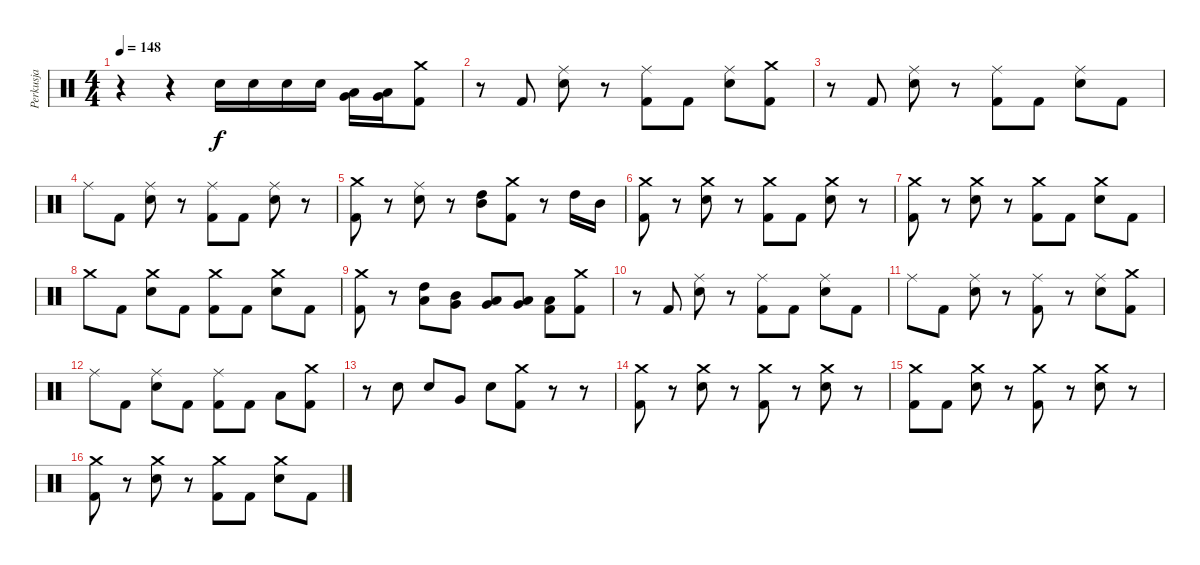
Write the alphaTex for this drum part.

\track ("Perkusja" "Perkusja") {instrument percussion}
\staff {score}
\articulation defaults
\ts (4 4)
\tempo 148
\clef neutral
\ks c
r.4{dy f} r.4 "Electric Snare (hit)".16 "Electric Snare (hit)".16 "Electric Snare (hit)".16 "Electric Snare (hit)".16 ("Very Low Tom (hit)" "Low Floor Tom (hit)").16 ("Very Low Tom (hit)" "Low Floor Tom (hit)").16 ("Crash medium (hit)" "Kick (hit) 2").8 |
r.8 "Kick (hit) 2".8 ("Ride (middle)" "Electric Snare (hit)").8 r.8 ("Ride (middle)" "Kick (hit) 2").8 "Kick (hit) 2".8 ("Ride (middle)" "Electric Snare (hit)").8 ("Crash medium (hit)" "Kick (hit) 2").8 |
r.8 "Kick (hit) 2".8 ("Ride (middle)" "Electric Snare (hit)").8 r.8 ("Ride (middle)" "Kick (hit) 2").8 "Kick (hit) 2".8 ("Ride (middle)" "Electric Snare (hit)").8 "Kick (hit) 2".8 |
"Ride (middle)".8 "Kick (hit) 2".8 ("Ride (middle)" "Electric Snare (hit)").8 r.8 ("Ride (middle)" "Kick (hit) 2").8 "Kick (hit) 2".8 ("Ride (middle)" "Electric Snare (hit)").8 r.8 |
("Crash medium (hit)" "Kick (hit) 2").8 r.8 ("Ride (middle)" "Electric Snare (hit)").8 r.8 ("High Tom (hit)" "Mid Tom (hit)").8 ("Crash medium (hit)" "Kick (hit) 2").8 r.8 "High Tom (hit)".16 "Mid Tom (hit)".16 |
("Crash medium (hit)" "Kick (hit) 2").8 r.8 ("Crash medium (hit)" "Electric Snare (hit)").8 r.8 ("Crash medium (hit)" "Kick (hit) 2").8 "Kick (hit) 2".8 ("Crash medium (hit)" "Electric Snare (hit)").8 r.8 |
("Crash medium (hit)" "Kick (hit) 2").8 r.8 ("Crash medium (hit)" "Electric Snare (hit)").8 r.8 ("Crash medium (hit)" "Kick (hit) 2").8 "Kick (hit) 2".8 ("Crash medium (hit)" "Electric Snare (hit)").8 "Kick (hit) 2".8 |
"Crash medium (hit)".8 "Kick (hit) 2".8 ("Crash medium (hit)" "Electric Snare (hit)").8 "Kick (hit) 2".8 ("Crash medium (hit)" "Kick (hit) 2").8 "Kick (hit) 2".8 ("Crash medium (hit)" "Electric Snare (hit)").8 "Kick (hit) 2".8 |
("Crash medium (hit)" "Kick (hit) 2").8 r.8 ("High Tom (hit)" "Low Floor Tom (hit)").8 ("Mid Tom (hit)" "Very Low Tom (hit)").8 ("Low Tom (hit)" "Very Low Tom (hit)").8 ("Very Low Tom (hit)" "Low Floor Tom (hit)").8 ("Low Floor Tom (hit)" "Kick (hit) 2").8 ("Crash medium (hit)" "Kick (hit) 2").8 |
r.8 "Kick (hit) 2".8 ("Ride (middle)" "Electric Snare (hit)").8 r.8 ("Ride (middle)" "Kick (hit) 2").8 "Kick (hit) 2".8 ("Ride (middle)" "Electric Snare (hit)").8 "Kick (hit) 2".8 |
"Ride (middle)".8 "Kick (hit) 2".8 ("Ride (middle)" "Electric Snare (hit)").8 r.8 ("Ride (middle)" "Kick (hit) 2").8 r.8 ("Ride (middle)" "Electric Snare (hit)").8 ("Crash medium (hit)" "Kick (hit) 2").8 |
"Ride (middle)".8 "Kick (hit) 2".8 ("Ride (middle)" "Electric Snare (hit)").8 "Kick (hit) 2".8 ("Ride (middle)" "Kick (hit) 2").8 "Kick (hit) 2".8 "Low Tom (hit)".8 ("Crash medium (hit)" "Kick (hit) 2").8 |
r.8 "Electric Snare (hit)".8 "Electric Snare (hit)".8 "Very Low Tom (hit)".8 "Electric Snare (hit)".8 ("Crash medium (hit)" "Kick (hit) 2").8 r.8 r.8 |
("Crash medium (hit)" "Kick (hit) 2").8 r.8 ("Crash medium (hit)" "Electric Snare (hit)").8 r.8 ("Crash medium (hit)" "Kick (hit) 2").8 r.8 ("Crash medium (hit)" "Electric Snare (hit)").8 r.8 |
("Crash medium (hit)" "Kick (hit) 2").8 "Kick (hit) 2".8 ("Crash medium (hit)" "Electric Snare (hit)").8 r.8 ("Crash medium (hit)" "Kick (hit) 2").8 r.8 ("Crash medium (hit)" "Electric Snare (hit)").8 r.8 |
("Crash medium (hit)" "Kick (hit) 2").8 r.8 ("Crash medium (hit)" "Electric Snare (hit)").8 r.8 ("Crash medium (hit)" "Kick (hit) 2").8 "Kick (hit) 2".8 ("Crash medium (hit)" "Electric Snare (hit)").8 "Kick (hit) 2".8
